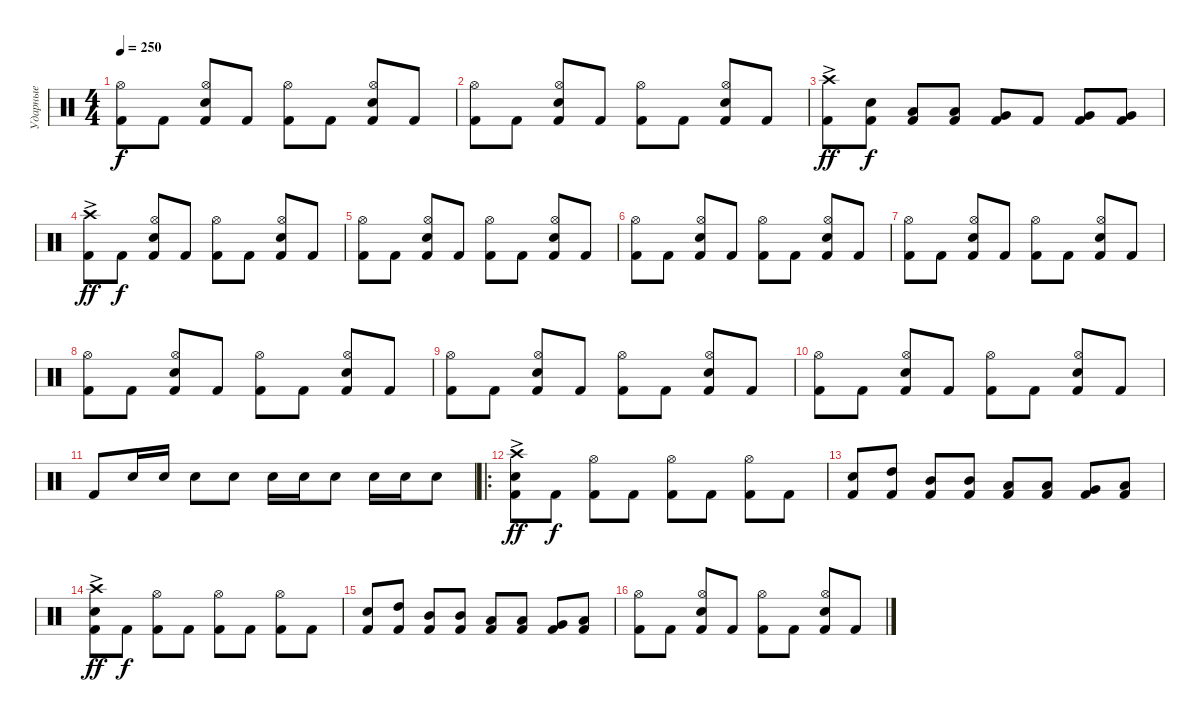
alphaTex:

\track ("Ударные" "Ударные") {instrument percussion}
\staff {score}
\articulation defaults
\ts (4 4)
\tempo 250
\clef neutral
\ks c
("Kick (hit) 2" "Hi-Hat (open)").8{dy f} "Kick (hit) 2".8 ("Kick (hit) 2" "Snare (hit) 2" "Hi-Hat (open)").8 "Kick (hit) 2".8 ("Kick (hit) 2" "Hi-Hat (open)").8 "Kick (hit) 2".8 ("Kick (hit) 2" "Snare (hit) 2" "Hi-Hat (open)").8 "Kick (hit) 2".8 |
("Kick (hit) 2" "Hi-Hat (open)").8 "Kick (hit) 2".8 ("Kick (hit) 2" "Snare (hit) 2" "Hi-Hat (open)").8 "Kick (hit) 2".8 ("Kick (hit) 2" "Hi-Hat (open)").8 "Kick (hit) 2".8 ("Kick (hit) 2" "Snare (hit) 2" "Hi-Hat (open)").8 "Kick (hit) 2".8 |
("Kick (hit) 2" "Crash high (hit)"{ac}).8{dy ff} ("Kick (hit) 2" "Snare (hit) 2").8{dy f} ("Kick (hit) 2" "Low Tom (hit)").8 ("Kick (hit) 2" "Low Tom (hit)").8 ("Kick (hit) 2" "Very Low Tom (hit)").8 "Kick (hit) 2".8 ("Kick (hit) 2" "Very Low Tom (hit)").8 ("Kick (hit) 2" "Very Low Tom (hit)").8 |
("Kick (hit) 2" "Crash high (hit)"{ac}).8{dy ff} "Kick (hit) 2".8{dy f} ("Kick (hit) 2" "Snare (hit) 2" "Hi-Hat (open)").8 "Kick (hit) 2".8 ("Kick (hit) 2" "Hi-Hat (open)").8 "Kick (hit) 2".8 ("Kick (hit) 2" "Snare (hit) 2" "Hi-Hat (open)").8 "Kick (hit) 2".8 |
("Kick (hit) 2" "Hi-Hat (open)").8 "Kick (hit) 2".8 ("Kick (hit) 2" "Snare (hit) 2" "Hi-Hat (open)").8 "Kick (hit) 2".8 ("Kick (hit) 2" "Hi-Hat (open)").8 "Kick (hit) 2".8 ("Kick (hit) 2" "Snare (hit) 2" "Hi-Hat (open)").8 "Kick (hit) 2".8 |
("Kick (hit) 2" "Hi-Hat (open)").8 "Kick (hit) 2".8 ("Kick (hit) 2" "Snare (hit) 2" "Hi-Hat (open)").8 "Kick (hit) 2".8 ("Kick (hit) 2" "Hi-Hat (open)").8 "Kick (hit) 2".8 ("Kick (hit) 2" "Snare (hit) 2" "Hi-Hat (open)").8 "Kick (hit) 2".8 |
("Kick (hit) 2" "Hi-Hat (open)").8 "Kick (hit) 2".8 ("Kick (hit) 2" "Snare (hit) 2" "Hi-Hat (open)").8 "Kick (hit) 2".8 ("Kick (hit) 2" "Hi-Hat (open)").8 "Kick (hit) 2".8 ("Kick (hit) 2" "Snare (hit) 2" "Hi-Hat (open)").8 "Kick (hit) 2".8 |
("Kick (hit) 2" "Hi-Hat (open)").8 "Kick (hit) 2".8 ("Kick (hit) 2" "Snare (hit) 2" "Hi-Hat (open)").8 "Kick (hit) 2".8 ("Kick (hit) 2" "Hi-Hat (open)").8 "Kick (hit) 2".8 ("Kick (hit) 2" "Snare (hit) 2" "Hi-Hat (open)").8 "Kick (hit) 2".8 |
("Kick (hit) 2" "Hi-Hat (open)").8 "Kick (hit) 2".8 ("Kick (hit) 2" "Snare (hit) 2" "Hi-Hat (open)").8 "Kick (hit) 2".8 ("Kick (hit) 2" "Hi-Hat (open)").8 "Kick (hit) 2".8 ("Kick (hit) 2" "Snare (hit) 2" "Hi-Hat (open)").8 "Kick (hit) 2".8 |
("Kick (hit) 2" "Hi-Hat (open)").8 "Kick (hit) 2".8 ("Kick (hit) 2" "Snare (hit) 2" "Hi-Hat (open)").8 "Kick (hit) 2".8 ("Kick (hit) 2" "Hi-Hat (open)").8 "Kick (hit) 2".8 ("Kick (hit) 2" "Snare (hit) 2" "Hi-Hat (open)").8 "Kick (hit) 2".8 |
"Kick (hit) 2".8 "Snare (hit) 2".16 "Snare (hit) 2".16 "Snare (hit) 2".8 "Snare (hit) 2".8 "Snare (hit) 2".16 "Snare (hit) 2".16 "Snare (hit) 2".8 "Snare (hit) 2".16 "Snare (hit) 2".16 "Snare (hit) 2".8 |
\ro
("Kick (hit) 2" "Snare (hit) 2" "Crash high (hit)"{ac}).8{dy ff} "Kick (hit) 2".8{dy f} ("Kick (hit) 2" "Hi-Hat (open)").8 "Kick (hit) 2".8 ("Kick (hit) 2" "Hi-Hat (open)").8 "Kick (hit) 2".8 ("Kick (hit) 2" "Hi-Hat (open)").8 "Kick (hit) 2".8 |
("Kick (hit) 2" "Snare (hit) 2").8 ("Kick (hit) 2" "High Tom (hit)").8 ("Kick (hit) 2" "Mid Tom (hit)").8 ("Kick (hit) 2" "Mid Tom (hit)").8 ("Kick (hit) 2" "Low Tom (hit)").8 ("Kick (hit) 2" "Low Tom (hit)").8 ("Kick (hit) 2" "Very Low Tom (hit)").8 ("Kick (hit) 2" "Low Floor Tom (hit)").8 |
("Kick (hit) 2" "Snare (hit) 2" "Crash high (hit)"{ac}).8{dy ff} "Kick (hit) 2".8{dy f} ("Kick (hit) 2" "Hi-Hat (open)").8 "Kick (hit) 2".8 ("Kick (hit) 2" "Hi-Hat (open)").8 "Kick (hit) 2".8 ("Kick (hit) 2" "Hi-Hat (open)").8 "Kick (hit) 2".8 |
("Kick (hit) 2" "Snare (hit) 2").8 ("Kick (hit) 2" "High Tom (hit)").8 ("Kick (hit) 2" "Mid Tom (hit)").8 ("Kick (hit) 2" "Mid Tom (hit)").8 ("Kick (hit) 2" "Low Tom (hit)").8 ("Kick (hit) 2" "Low Tom (hit)").8 ("Kick (hit) 2" "Very Low Tom (hit)").8 ("Kick (hit) 2" "Low Floor Tom (hit)").8 |
("Kick (hit) 2" "Hi-Hat (open)").8 "Kick (hit) 2".8 ("Kick (hit) 2" "Snare (hit) 2" "Hi-Hat (open)").8 "Kick (hit) 2".8 ("Kick (hit) 2" "Hi-Hat (open)").8 "Kick (hit) 2".8 ("Kick (hit) 2" "Snare (hit) 2" "Hi-Hat (open)").8 "Kick (hit) 2".8
